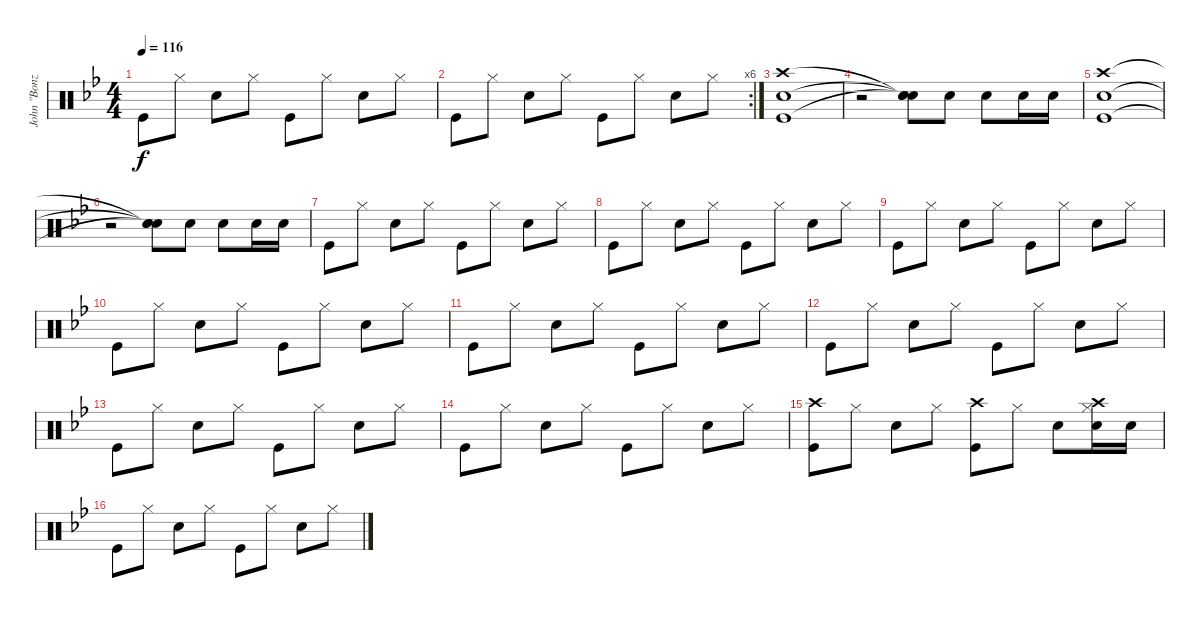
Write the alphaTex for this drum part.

\track ("John \"Bonzo\" Bonham" "John \"Bonz") {instrument percussion}
\staff {score}
\articulation defaults
\ts (4 4)
\tempo 116
\clef neutral
\ks bb "Kick (hit)".8{dy f} "Hi-Hat (closed)".8 "Snare (hit) 2".8 "Hi-Hat (closed)".8 "Kick (hit)".8 "Hi-Hat (closed)".8 "Snare (hit) 2".8 "Hi-Hat (closed)".8
|
\rc 6 "Kick (hit)".8 "Hi-Hat (closed)".8 "Snare (hit) 2".8 "Hi-Hat (closed)".8 "Kick (hit)".8 "Hi-Hat (closed)".8 "Snare (hit) 2".8 "Hi-Hat (closed)".8
|
("Kick (hit)" "Snare (hit) 2" "Crash high (hit)").1 |
r.2 ("Snare (hit)"{t} "Snare (hit)"{t} "Snare (hit)"{t}).8 "Snare (hit) 2".8 "Snare (hit) 2".8 "Snare (hit) 2".16 "Snare (hit) 2".16 |
("Kick (hit)" "Snare (hit) 2" "Crash high (hit)").1 |
r.2 ("Snare (hit)"{t} "Snare (hit)"{t} "Snare (hit)"{t}).8 "Snare (hit) 2".8 "Snare (hit) 2".8 "Snare (hit) 2".16 "Snare (hit) 2".16 |
"Kick (hit)".8 "Hi-Hat (closed)".8 "Snare (hit) 2".8 "Hi-Hat (closed)".8 "Kick (hit)".8 "Hi-Hat (closed)".8 "Snare (hit) 2".8 "Hi-Hat (closed)".8 |
"Kick (hit)".8 "Hi-Hat (closed)".8 "Snare (hit) 2".8 "Hi-Hat (closed)".8 "Kick (hit)".8 "Hi-Hat (closed)".8 "Snare (hit) 2".8 "Hi-Hat (closed)".8 |
"Kick (hit)".8 "Hi-Hat (closed)".8 "Snare (hit) 2".8 "Hi-Hat (closed)".8 "Kick (hit)".8 "Hi-Hat (closed)".8 "Snare (hit) 2".8 "Hi-Hat (closed)".8 |
"Kick (hit)".8 "Hi-Hat (closed)".8 "Snare (hit) 2".8 "Hi-Hat (closed)".8 "Kick (hit)".8 "Hi-Hat (closed)".8 "Snare (hit) 2".8 "Hi-Hat (closed)".8 |
"Kick (hit)".8 "Hi-Hat (closed)".8 "Snare (hit) 2".8 "Hi-Hat (closed)".8 "Kick (hit)".8 "Hi-Hat (closed)".8 "Snare (hit) 2".8 "Hi-Hat (closed)".8 |
"Kick (hit)".8 "Hi-Hat (closed)".8 "Snare (hit) 2".8 "Hi-Hat (closed)".8 "Kick (hit)".8 "Hi-Hat (closed)".8 "Snare (hit) 2".8 "Hi-Hat (closed)".8 |
"Kick (hit)".8 "Hi-Hat (closed)".8 "Snare (hit) 2".8 "Hi-Hat (closed)".8 "Kick (hit)".8 "Hi-Hat (closed)".8 "Snare (hit) 2".8 "Hi-Hat (closed)".8 |
"Kick (hit)".8 "Hi-Hat (closed)".8 "Snare (hit) 2".8 "Hi-Hat (closed)".8 "Kick (hit)".8 "Hi-Hat (closed)".8 "Snare (hit) 2".8 "Hi-Hat (closed)".8 |
("Kick (hit)" "Crash high (hit)").8 "Hi-Hat (closed)".8 "Snare (hit) 2".8 "Hi-Hat (closed)".8 ("Kick (hit)" "Crash high (hit)").8 "Hi-Hat (closed)".8 "Snare (hit) 2".8 ("Snare (hit) 2" "Hi-Hat (closed)" "Crash high (hit)").16 "Snare (hit) 2".16 |
"Kick (hit)".8 "Hi-Hat (closed)".8 "Snare (hit) 2".8 "Hi-Hat (closed)".8 "Kick (hit)".8 "Hi-Hat (closed)".8 "Snare (hit) 2".8 "Hi-Hat (closed)".8
